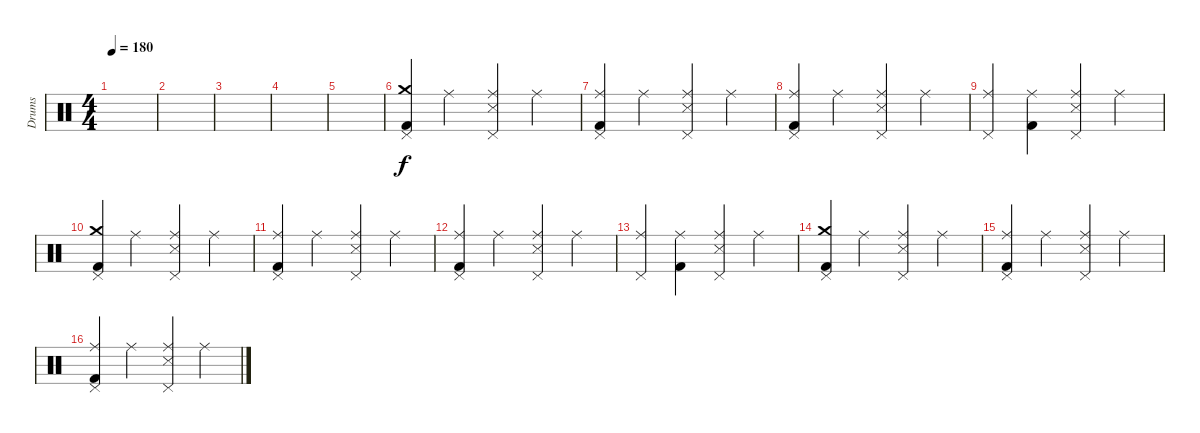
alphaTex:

\track ("Drums" "Drums") {instrument percussion}
\staff {score}
\articulation defaults
\ts (4 4)
\tempo 180
\clef neutral
\ks c
|
|
|
|
|
("Pedal Hi-Hat (hit)" "Crash medium (hit)" "Kick (hit) 2").4 "Ride (middle)".4 ("Pedal Hi-Hat (hit)" "Ride (middle)" "Snare (side stick) 3").4 "Ride (middle)".4 |
("Pedal Hi-Hat (hit)" "Ride (middle)" "Kick (hit) 2").4 "Ride (middle)".4 ("Pedal Hi-Hat (hit)" "Ride (middle)" "Snare (side stick) 3").4 "Ride (middle)".4 |
("Pedal Hi-Hat (hit)" "Ride (middle)" "Kick (hit) 2").4 "Ride (middle)".4 ("Pedal Hi-Hat (hit)" "Ride (middle)" "Snare (side stick) 3").4 "Ride (middle)".4 |
("Pedal Hi-Hat (hit)" "Ride (middle)").4 ("Ride (middle)" "Kick (hit) 2").4 ("Pedal Hi-Hat (hit)" "Ride (middle)" "Snare (side stick) 3").4 "Ride (middle)".4 |
("Pedal Hi-Hat (hit)" "Crash medium (hit)" "Kick (hit) 2").4 "Ride (middle)".4 ("Pedal Hi-Hat (hit)" "Ride (middle)" "Snare (side stick) 3").4 "Ride (middle)".4 |
("Pedal Hi-Hat (hit)" "Ride (middle)" "Kick (hit) 2").4 "Ride (middle)".4 ("Pedal Hi-Hat (hit)" "Ride (middle)" "Snare (side stick) 3").4 "Ride (middle)".4 |
("Pedal Hi-Hat (hit)" "Ride (middle)" "Kick (hit) 2").4 "Ride (middle)".4 ("Pedal Hi-Hat (hit)" "Ride (middle)" "Snare (side stick) 3").4 "Ride (middle)".4 |
("Pedal Hi-Hat (hit)" "Ride (middle)").4 ("Ride (middle)" "Kick (hit) 2").4 ("Pedal Hi-Hat (hit)" "Ride (middle)" "Snare (side stick) 3").4 "Ride (middle)".4 |
("Pedal Hi-Hat (hit)" "Crash medium (hit)" "Kick (hit) 2").4 "Ride (middle)".4 ("Pedal Hi-Hat (hit)" "Ride (middle)" "Snare (side stick) 3").4 "Ride (middle)".4 |
("Pedal Hi-Hat (hit)" "Ride (middle)" "Kick (hit) 2").4 "Ride (middle)".4 ("Pedal Hi-Hat (hit)" "Ride (middle)" "Snare (side stick) 3").4 "Ride (middle)".4 |
("Pedal Hi-Hat (hit)" "Ride (middle)" "Kick (hit) 2").4 "Ride (middle)".4 ("Pedal Hi-Hat (hit)" "Ride (middle)" "Snare (side stick) 3").4 "Ride (middle)".4
